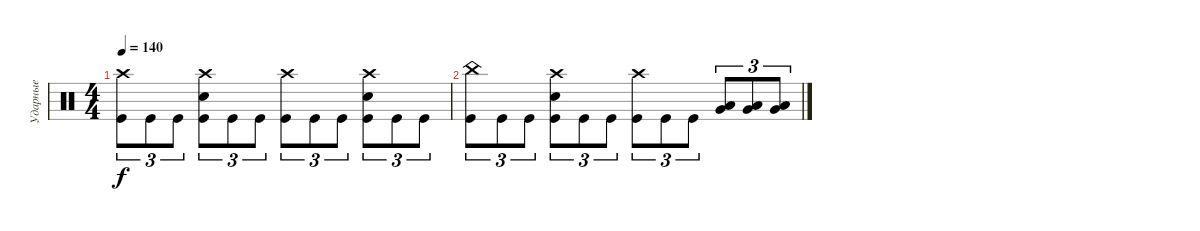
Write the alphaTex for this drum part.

\track ("Ударные" "Ударные") {instrument percussion}
\staff {score}
\articulation defaults
\ts (4 4)
\tempo 140
\clef neutral
\ks c
("Crash high (hit)" "Kick (hit)").8{tu (3 2) dy f} "Kick (hit)".8{tu (3 2)} "Kick (hit)".8{tu (3 2)} ("Crash high (hit)" "Electric Snare (hit)" "Kick (hit)").8{tu (3 2)} "Kick (hit)".8{tu (3 2)} "Kick (hit)".8{tu (3 2)} ("Crash high (hit)" "Kick (hit)").8{tu (3 2)} "Kick (hit)".8{tu (3 2)} "Kick (hit)".8{tu (3 2)} ("Crash high (hit)" "Electric Snare (hit)" "Kick (hit)").8{tu (3 2)} "Kick (hit)".8{tu (3 2)} "Kick (hit)".8{tu (3 2)} |
("China (hit)" "Kick (hit)").8{tu (3 2)} "Kick (hit)".8{tu (3 2)} "Kick (hit)".8{tu (3 2)} ("Crash high (hit)" "Electric Snare (hit)" "Kick (hit)").8{tu (3 2)} "Kick (hit)".8{tu (3 2)} "Kick (hit)".8{tu (3 2)} ("Crash high (hit)" "Kick (hit)").8{tu (3 2)} "Kick (hit)".8{tu (3 2)} "Kick (hit)".8{tu (3 2)} ("Low Tom (hit)" "Very Low Tom (hit)").8{tu (3 2)} ("Low Tom (hit)" "Very Low Tom (hit)").8{tu (3 2)} ("Low Tom (hit)" "Very Low Tom (hit)").8{tu (3 2)}
